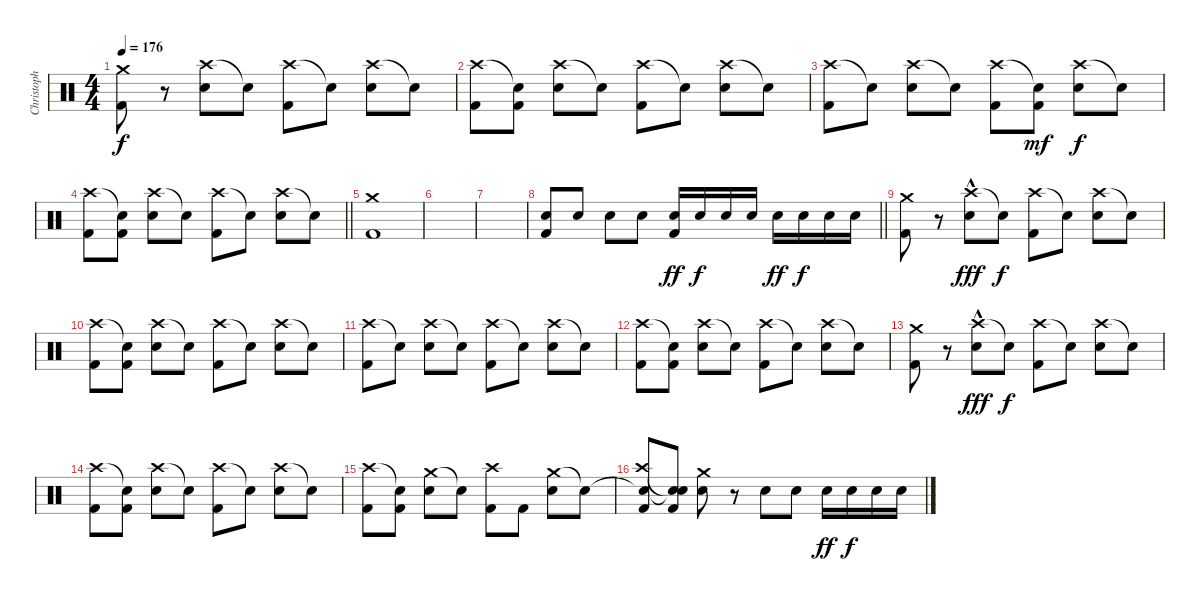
\track ("Christoph" "Christoph") {instrument percussion}
\staff {score}
\articulation defaults
\ts (4 4)
\tempo 176
\clef neutral
\ks c
("Crash medium (hit)" "Kick (hit) 2").8{dy f} r.8 ("Crash high (hit)" "Snare (hit) 2").8 "Snare (hit)"{t}.8 ("Crash high (hit)" "Kick (hit) 2").8 "Snare (hit)"{t}.8 ("Crash high (hit)" "Snare (hit) 2").8 "Snare (hit)"{t}.8 |
("Crash high (hit)" "Kick (hit) 2").8 ("Snare (hit)"{t} "Kick (hit) 2").8 ("Crash high (hit)" "Snare (hit) 2").8 "Snare (hit)"{t}.8 ("Crash high (hit)" "Kick (hit) 2").8 "Snare (hit)"{t}.8 ("Crash high (hit)" "Snare (hit) 2").8 "Snare (hit)"{t}.8 |
("Crash high (hit)" "Kick (hit) 2").8 "Snare (hit)"{t}.8 ("Crash high (hit)" "Snare (hit) 2").8 "Snare (hit)"{t}.8 ("Crash high (hit)" "Kick (hit) 2").8 ("Snare (hit)"{t} "Kick (hit) 2").8{dy mf} ("Crash high (hit)" "Snare (hit) 2").8{dy f} "Snare (hit)"{t}.8 |
\barLineRight lightlight
("Crash high (hit)" "Kick (hit) 2").8 ("Snare (hit)"{t} "Kick (hit) 2").8 ("Crash high (hit)" "Snare (hit) 2").8 "Snare (hit)"{t}.8 ("Crash high (hit)" "Kick (hit) 2").8 "Snare (hit)"{t}.8 ("Crash high (hit)" "Snare (hit) 2").8 "Snare (hit)"{t}.8 |
("Crash medium (hit)" "Kick (hit) 2").1 |
|
|
\barLineRight lightlight
("Snare (hit) 2" "Kick (hit) 2").8 "Snare (hit) 2".8 "Snare (hit) 2".8 "Snare (hit) 2".8 ("Snare (hit) 2" "Kick (hit) 2").16{dy ff} "Snare (hit) 2".16{dy f} "Snare (hit) 2".16 "Snare (hit) 2".16 "Snare (hit) 2".16{dy ff} "Snare (hit) 2".16{dy f} "Snare (hit) 2".16 "Snare (hit) 2".16 |
("Crash medium (hit)" "Kick (hit) 2").8 r.8 ("Crash high (hit)"{hac} "Snare (hit) 2").8{dy fff} "Snare (hit)"{t}.8{dy f} ("Crash high (hit)" "Kick (hit) 2").8 "Snare (hit)"{t}.8 ("Crash high (hit)" "Snare (hit) 2").8 "Snare (hit)"{t}.8 |
("Crash high (hit)" "Kick (hit) 2").8 ("Snare (hit)"{t} "Kick (hit) 2").8 ("Crash high (hit)" "Snare (hit) 2").8 "Snare (hit)"{t}.8 ("Crash high (hit)" "Kick (hit) 2").8 "Snare (hit)"{t}.8 ("Crash high (hit)" "Snare (hit) 2").8 "Snare (hit)"{t}.8 |
("Crash high (hit)" "Kick (hit) 2").8 "Snare (hit)"{t}.8 ("Crash high (hit)" "Snare (hit) 2").8 "Snare (hit)"{t}.8 ("Crash high (hit)" "Kick (hit) 2").8 "Snare (hit)"{t}.8 ("Crash high (hit)" "Snare (hit) 2").8 "Snare (hit)"{t}.8 |
("Crash high (hit)" "Kick (hit) 2").8 ("Snare (hit)"{t} "Kick (hit) 2").8 ("Crash high (hit)" "Snare (hit) 2").8 "Snare (hit)"{t}.8 ("Crash high (hit)" "Kick (hit) 2").8 "Snare (hit)"{t}.8 ("Crash high (hit)" "Snare (hit) 2").8 "Snare (hit)"{t}.8 |
("Crash medium (hit)" "Kick (hit) 2").8 r.8 ("Crash high (hit)"{hac} "Snare (hit) 2").8{dy fff} "Snare (hit)"{t}.8{dy f} ("Crash high (hit)" "Kick (hit) 2").8 "Snare (hit)"{t}.8 ("Crash high (hit)" "Snare (hit) 2").8 "Snare (hit)"{t}.8 |
("Crash high (hit)" "Kick (hit) 2").8 ("Snare (hit)"{t} "Kick (hit) 2").8 ("Crash high (hit)" "Snare (hit) 2").8 "Snare (hit)"{t}.8 ("Crash high (hit)" "Kick (hit) 2").8 "Snare (hit)"{t}.8 ("Crash high (hit)" "Snare (hit) 2").8 "Snare (hit)"{t}.8 |
("Crash high (hit)" "Kick (hit) 2").8 ("Snare (hit)"{t} "Kick (hit) 2").8 ("Crash medium (hit)" "Snare (hit) 2").8 "Snare (hit)"{t}.8 ("Crash high (hit)" "Kick (hit) 2").8 "Kick (hit) 2".8 ("Crash medium (hit)" "Snare (hit) 2").8 "Snare (hit)"{t}.8 |
("Snare (hit)"{t} "Crash high (hit)" "Kick (hit) 2").8 ("Snare (hit)"{t} "Snare (hit)"{t} "Kick (hit) 2").8 ("Crash medium (hit)" "Snare (hit) 2").8 r.8 "Snare (hit) 2".8 "Snare (hit) 2".8 "Snare (hit) 2".16{dy ff} "Snare (hit) 2".16{dy f} "Snare (hit) 2".16 "Snare (hit) 2".16
